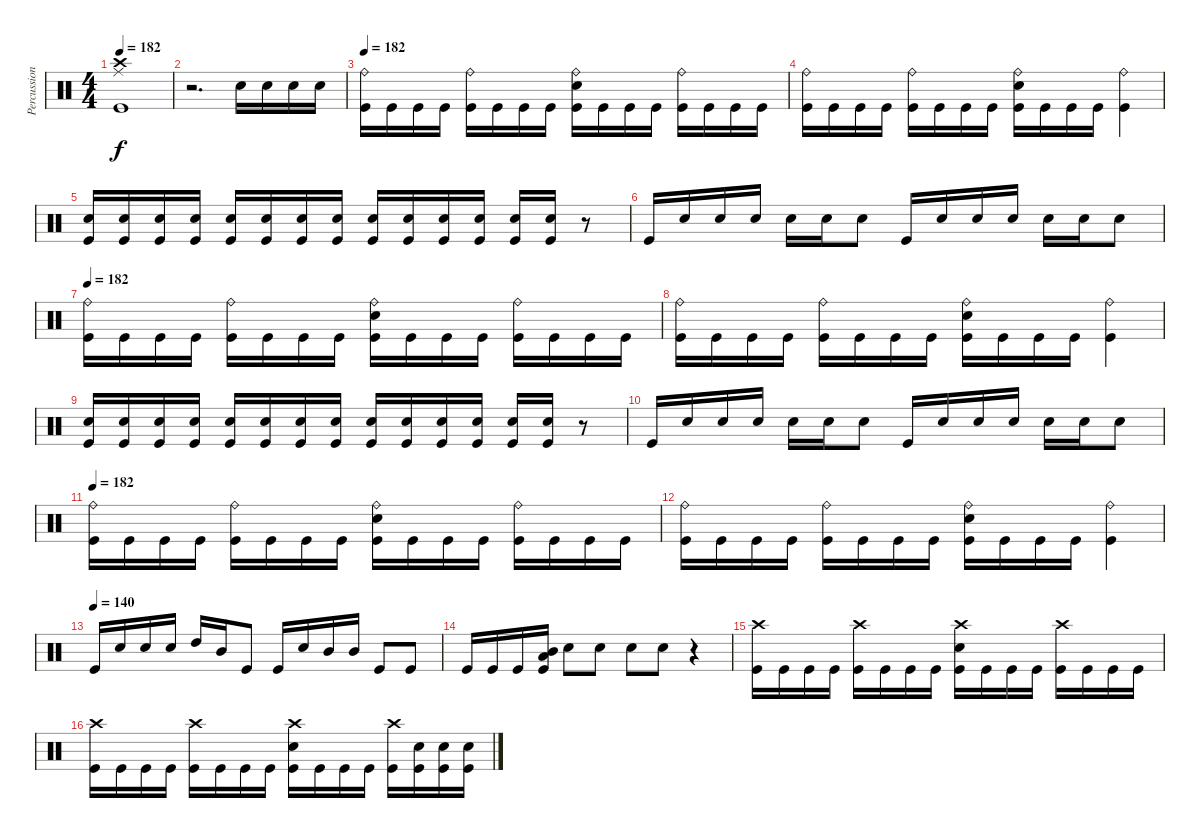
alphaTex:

\track ("Percussion" "Percussion") {instrument percussion}
\staff {score}
\articulation defaults
\ts (4 4)
\tempo 182
\clef neutral
\ks c
("Ride (middle)" "Crash high (hit)" "Kick (hit)").1{dy f} |
r.2{d} "Snare (hit) 2".16 "Snare (hit) 2".16 "Snare (hit) 2".16 "Snare (hit) 2".16 |
\tempo 182
("Ride (bell)" "Kick (hit)").16 "Kick (hit)".16 "Kick (hit)".16 "Kick (hit)".16 ("Ride (bell)" "Kick (hit)").16 "Kick (hit)".16 "Kick (hit)".16 "Kick (hit)".16 ("Ride (bell)" "Snare (hit) 2" "Kick (hit)").16 "Kick (hit)".16 "Kick (hit)".16 "Kick (hit)".16 ("Ride (bell)" "Kick (hit)").16 "Kick (hit)".16 "Kick (hit)".16 "Kick (hit)".16 |
("Ride (bell)" "Kick (hit)").16 "Kick (hit)".16 "Kick (hit)".16 "Kick (hit)".16 ("Ride (bell)" "Kick (hit)").16 "Kick (hit)".16 "Kick (hit)".16 "Kick (hit)".16 ("Ride (bell)" "Snare (hit) 2" "Kick (hit)").16 "Kick (hit)".16 "Kick (hit)".16 "Kick (hit)".16 ("Ride (bell)" "Kick (hit)").4 |
("Snare (hit) 2" "Kick (hit)").16 ("Snare (hit) 2" "Kick (hit)").16 ("Snare (hit) 2" "Kick (hit)").16 ("Snare (hit) 2" "Kick (hit)").16 ("Snare (hit) 2" "Kick (hit)").16 ("Snare (hit) 2" "Kick (hit)").16 ("Snare (hit) 2" "Kick (hit)").16 ("Snare (hit) 2" "Kick (hit)").16 ("Snare (hit) 2" "Kick (hit)").16 ("Snare (hit) 2" "Kick (hit)").16 ("Snare (hit) 2" "Kick (hit)").16 ("Snare (hit) 2" "Kick (hit)").16 ("Snare (hit) 2" "Kick (hit)").16 ("Snare (hit) 2" "Kick (hit)").16 r.8 |
"Kick (hit)".16 "Snare (hit) 2".16 "Snare (hit) 2".16 "Snare (hit) 2".16 "Snare (hit) 2".16 "Snare (hit) 2".16 "Snare (hit) 2".8 "Kick (hit)".16 "Snare (hit) 2".16 "Snare (hit) 2".16 "Snare (hit) 2".16 "Snare (hit) 2".16 "Snare (hit) 2".16 "Snare (hit) 2".8 |
\tempo 182
("Ride (bell)" "Kick (hit)").16 "Kick (hit)".16 "Kick (hit)".16 "Kick (hit)".16 ("Ride (bell)" "Kick (hit)").16 "Kick (hit)".16 "Kick (hit)".16 "Kick (hit)".16 ("Ride (bell)" "Snare (hit) 2" "Kick (hit)").16 "Kick (hit)".16 "Kick (hit)".16 "Kick (hit)".16 ("Ride (bell)" "Kick (hit)").16 "Kick (hit)".16 "Kick (hit)".16 "Kick (hit)".16 |
("Ride (bell)" "Kick (hit)").16 "Kick (hit)".16 "Kick (hit)".16 "Kick (hit)".16 ("Ride (bell)" "Kick (hit)").16 "Kick (hit)".16 "Kick (hit)".16 "Kick (hit)".16 ("Ride (bell)" "Snare (hit) 2" "Kick (hit)").16 "Kick (hit)".16 "Kick (hit)".16 "Kick (hit)".16 ("Ride (bell)" "Kick (hit)").4 |
("Snare (hit) 2" "Kick (hit)").16 ("Snare (hit) 2" "Kick (hit)").16 ("Snare (hit) 2" "Kick (hit)").16 ("Snare (hit) 2" "Kick (hit)").16 ("Snare (hit) 2" "Kick (hit)").16 ("Snare (hit) 2" "Kick (hit)").16 ("Snare (hit) 2" "Kick (hit)").16 ("Snare (hit) 2" "Kick (hit)").16 ("Snare (hit) 2" "Kick (hit)").16 ("Snare (hit) 2" "Kick (hit)").16 ("Snare (hit) 2" "Kick (hit)").16 ("Snare (hit) 2" "Kick (hit)").16 ("Snare (hit) 2" "Kick (hit)").16 ("Snare (hit) 2" "Kick (hit)").16 r.8 |
"Kick (hit)".16 "Snare (hit) 2".16 "Snare (hit) 2".16 "Snare (hit) 2".16 "Snare (hit) 2".16 "Snare (hit) 2".16 "Snare (hit) 2".8 "Kick (hit)".16 "Snare (hit) 2".16 "Snare (hit) 2".16 "Snare (hit) 2".16 "Snare (hit) 2".16 "Snare (hit) 2".16 "Snare (hit) 2".8 |
\tempo 182
("Ride (bell)" "Kick (hit)").16 "Kick (hit)".16 "Kick (hit)".16 "Kick (hit)".16 ("Ride (bell)" "Kick (hit)").16 "Kick (hit)".16 "Kick (hit)".16 "Kick (hit)".16 ("Ride (bell)" "Snare (hit) 2" "Kick (hit)").16 "Kick (hit)".16 "Kick (hit)".16 "Kick (hit)".16 ("Ride (bell)" "Kick (hit)").16 "Kick (hit)".16 "Kick (hit)".16 "Kick (hit)".16 |
("Ride (bell)" "Kick (hit)").16 "Kick (hit)".16 "Kick (hit)".16 "Kick (hit)".16 ("Ride (bell)" "Kick (hit)").16 "Kick (hit)".16 "Kick (hit)".16 "Kick (hit)".16 ("Ride (bell)" "Snare (hit) 2" "Kick (hit)").16 "Kick (hit)".16 "Kick (hit)".16 "Kick (hit)".16 ("Ride (bell)" "Kick (hit)").4 |
\tempo (140)
"Kick (hit)".16 "Snare (hit) 2".16 "Snare (hit) 2".16 "Snare (hit) 2".16 "High Tom (hit)".16 "Mid Tom (hit)".16 "Kick (hit)".8 "Kick (hit)".16 "Snare (hit) 2".16 "Mid Tom (hit)".16 "Mid Tom (hit)".16 "Kick (hit)".8 "Kick (hit)".8 |
"Kick (hit)".16 "Kick (hit)".16 "Kick (hit)".16 ("Low Tom (hit)" "Mid Tom (hit)" "Kick (hit)").16 "Snare (hit) 2".8 "Snare (hit) 2".8 "Snare (hit) 2".8 "Snare (hit) 2".8 r.4 |
("Crash high (hit)" "Kick (hit)").16 "Kick (hit)".16 "Kick (hit)".16 "Kick (hit)".16 ("Crash high (hit)" "Kick (hit)").16 "Kick (hit)".16 "Kick (hit)".16 "Kick (hit)".16 ("Crash high (hit)" "Snare (hit) 2" "Kick (hit)").16 "Kick (hit)".16 "Kick (hit)".16 "Kick (hit)".16 ("Crash high (hit)" "Kick (hit)").16 "Kick (hit)".16 "Kick (hit)".16 "Kick (hit)".16 |
("Crash high (hit)" "Kick (hit)").16 "Kick (hit)".16 "Kick (hit)".16 "Kick (hit)".16 ("Crash high (hit)" "Kick (hit)").16 "Kick (hit)".16 "Kick (hit)".16 "Kick (hit)".16 ("Crash high (hit)" "Snare (hit) 2" "Kick (hit)").16 "Kick (hit)".16 "Kick (hit)".16 "Kick (hit)".16 ("Crash high (hit)" "Kick (hit)").16 ("Snare (hit) 2" "Kick (hit)").16 ("Snare (hit) 2" "Kick (hit)").16 ("Snare (hit) 2" "Kick (hit)").16
